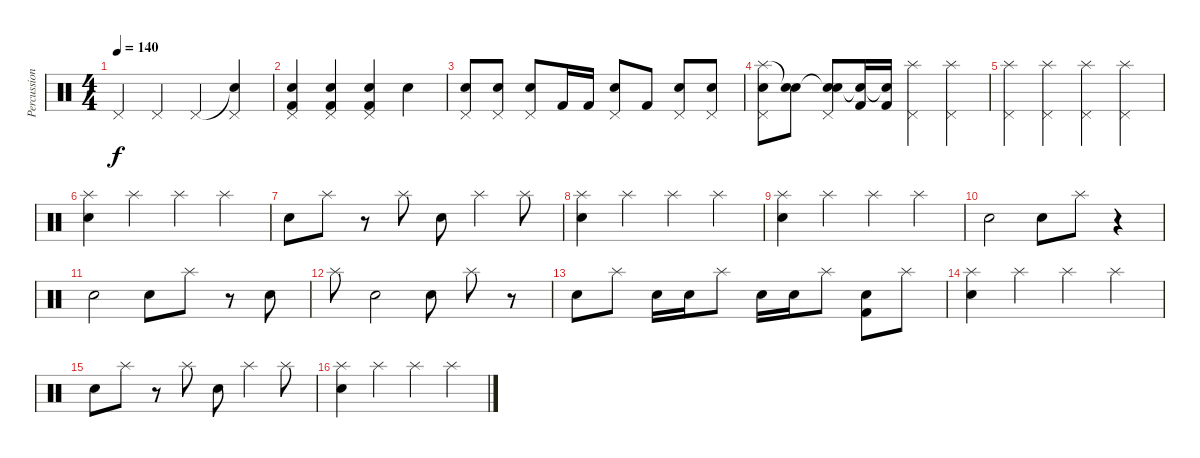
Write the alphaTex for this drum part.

\track ("Percussions" "Percussion") {instrument percussion}
\staff {score}
\articulation defaults
\ts (4 4)
\tempo 140
\clef neutral
\ks c "Pedal Hi-Hat (hit)".4{dy f} "Pedal Hi-Hat (hit)".4 "Pedal Hi-Hat (hit)".4
("Snare (hit)"{t} "Pedal Hi-Hat (hit)").4 |
("Pedal Hi-Hat (hit)" "Electric Snare (hit)" "Kick (hit) 2").4 ("Pedal Hi-Hat (hit)" "Electric Snare (hit)" "Kick (hit) 2").4 ("Pedal Hi-Hat (hit)" "Electric Snare (hit)" "Kick (hit) 2").4 "Electric Snare (hit)".4 |
("Pedal Hi-Hat (hit)" "Snare (hit) 2").8 ("Pedal Hi-Hat (hit)" "Electric Snare (hit)").8 ("Pedal Hi-Hat (hit)" "Snare (hit) 2").8 "Kick (hit) 2".16 "Kick (hit) 2".16 ("Pedal Hi-Hat (hit)" "Electric Snare (hit)").8 "Kick (hit) 2".8 ("Pedal Hi-Hat (hit)" "Snare (hit) 2").8 ("Pedal Hi-Hat (hit)" "Electric Snare (hit)").8 |
("Splash (hit)" "Pedal Hi-Hat (hit)" "Snare (hit) 2").8 ("Snare (hit)"{t} "Electric Snare (hit)").8 ("Snare (hit)"{t} "Pedal Hi-Hat (hit)" "Snare (hit) 2").8 ("Snare (hit)"{t} "Kick (hit) 2").16 ("Snare (hit)"{t} "Kick (hit) 2").16 ("Splash (hit)" "Pedal Hi-Hat (hit)").4 ("Splash (hit)" "Pedal Hi-Hat (hit)").4 |
("Splash (hit)" "Pedal Hi-Hat (hit)").4 ("Splash (hit)" "Pedal Hi-Hat (hit)").4 ("Splash (hit)" "Pedal Hi-Hat (hit)").4 ("Splash (hit)" "Pedal Hi-Hat (hit)").4 |
("Splash (hit)" "Electric Snare (hit)").4 "Splash (hit)".4 "Splash (hit)".4 "Splash (hit)".4 |
"Electric Snare (hit)".8 "Splash (hit)".8 r.8 "Splash (hit)".8 "Electric Snare (hit)".8 "Splash (hit)".4 "Splash (hit)".8 |
("Splash (hit)" "Electric Snare (hit)").4 "Splash (hit)".4 "Splash (hit)".4 "Splash (hit)".4 |
("Splash (hit)" "Electric Snare (hit)").4 "Splash (hit)".4 "Splash (hit)".4 "Splash (hit)".4 |
"Electric Snare (hit)".2 "Electric Snare (hit)".8 "Splash (hit)".8 r.4 |
"Electric Snare (hit)".2 "Electric Snare (hit)".8 "Splash (hit)".8 r.8 "Electric Snare (hit)".8 |
"Splash (hit)".8 "Electric Snare (hit)".2 "Electric Snare (hit)".8 "Splash (hit)".8 r.8 |
"Electric Snare (hit)".8 "Splash (hit)".8 "Electric Snare (hit)".16 "Electric Snare (hit)".16 "Splash (hit)".8 "Electric Snare (hit)".16 "Electric Snare (hit)".16 "Splash (hit)".8 ("Electric Snare (hit)" "Kick (hit) 2").8 "Splash (hit)".8 |
("Splash (hit)" "Electric Snare (hit)").4 "Splash (hit)".4 "Splash (hit)".4 "Splash (hit)".4 |
"Electric Snare (hit)".8 "Splash (hit)".8 r.8 "Splash (hit)".8 "Electric Snare (hit)".8 "Splash (hit)".4 "Splash (hit)".8 |
("Splash (hit)" "Electric Snare (hit)").4 "Splash (hit)".4 "Splash (hit)".4 "Splash (hit)".4
